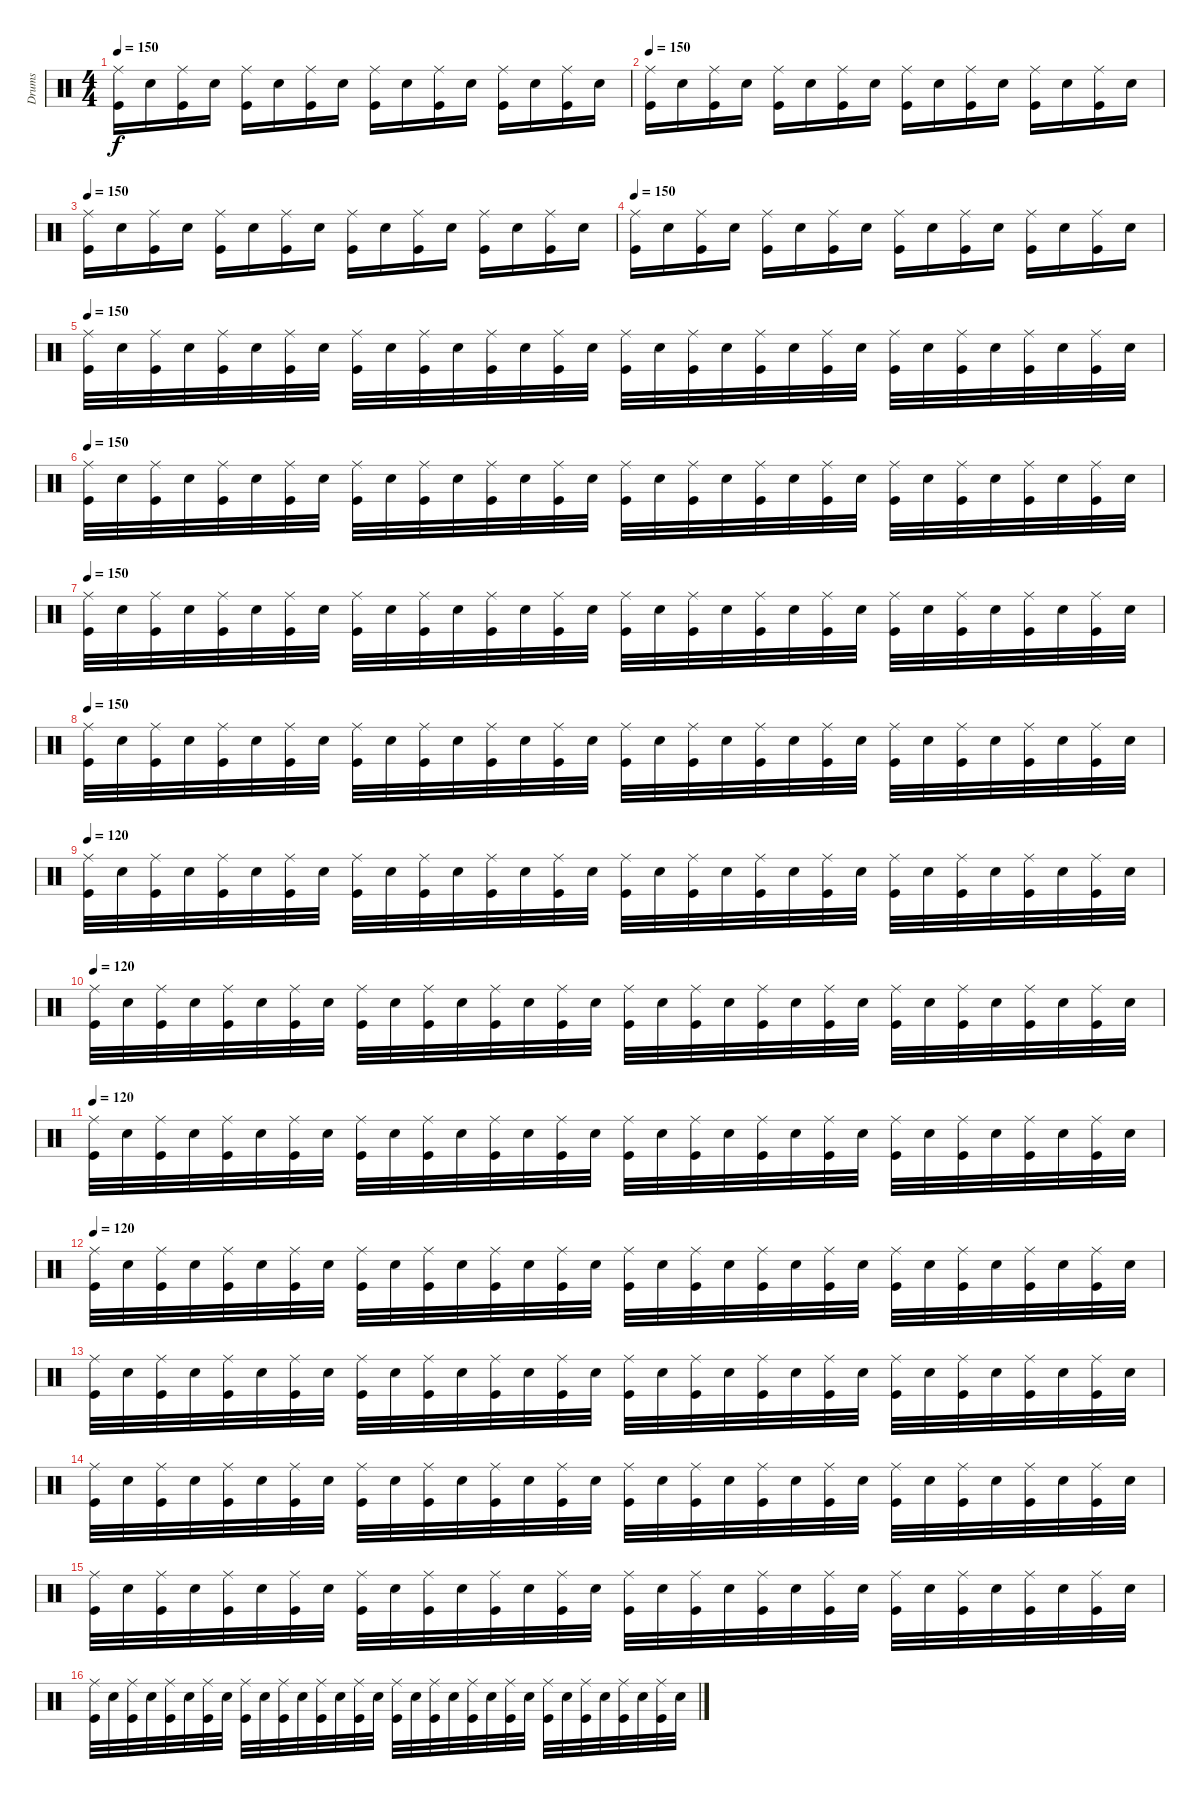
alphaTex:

\track ("Drums" "Drums") {instrument percussion}
\staff {score}
\articulation defaults
\ts (4 4)
\tempo 150
\clef neutral
\ks c
("Ride (middle)" "Kick (hit)").16{dy f} "Electric Snare (hit)".16 ("Ride (middle)" "Kick (hit)").16 "Electric Snare (hit)".16 ("Ride (middle)" "Kick (hit)").16 "Electric Snare (hit)".16 ("Ride (middle)" "Kick (hit)").16 "Electric Snare (hit)".16 ("Ride (middle)" "Kick (hit)").16 "Electric Snare (hit)".16 ("Ride (middle)" "Kick (hit)").16 "Electric Snare (hit)".16 ("Ride (middle)" "Kick (hit)").16 "Electric Snare (hit)".16 ("Ride (middle)" "Kick (hit)").16 "Electric Snare (hit)".16 |
\tempo 150
("Ride (middle)" "Kick (hit)").16 "Electric Snare (hit)".16 ("Ride (middle)" "Kick (hit)").16 "Electric Snare (hit)".16 ("Ride (middle)" "Kick (hit)").16 "Electric Snare (hit)".16 ("Ride (middle)" "Kick (hit)").16 "Electric Snare (hit)".16 ("Ride (middle)" "Kick (hit)").16 "Electric Snare (hit)".16 ("Ride (middle)" "Kick (hit)").16 "Electric Snare (hit)".16 ("Ride (middle)" "Kick (hit)").16 "Electric Snare (hit)".16 ("Ride (middle)" "Kick (hit)").16 "Electric Snare (hit)".16 |
\tempo 150
("Ride (middle)" "Kick (hit)").16 "Electric Snare (hit)".16 ("Ride (middle)" "Kick (hit)").16 "Electric Snare (hit)".16 ("Ride (middle)" "Kick (hit)").16 "Electric Snare (hit)".16 ("Ride (middle)" "Kick (hit)").16 "Electric Snare (hit)".16 ("Ride (middle)" "Kick (hit)").16 "Electric Snare (hit)".16 ("Ride (middle)" "Kick (hit)").16 "Electric Snare (hit)".16 ("Ride (middle)" "Kick (hit)").16 "Electric Snare (hit)".16 ("Ride (middle)" "Kick (hit)").16 "Electric Snare (hit)".16 |
\tempo 150
("Ride (middle)" "Kick (hit)").16 "Electric Snare (hit)".16 ("Ride (middle)" "Kick (hit)").16 "Electric Snare (hit)".16 ("Ride (middle)" "Kick (hit)").16 "Electric Snare (hit)".16 ("Ride (middle)" "Kick (hit)").16 "Electric Snare (hit)".16 ("Ride (middle)" "Kick (hit)").16 "Electric Snare (hit)".16 ("Ride (middle)" "Kick (hit)").16 "Electric Snare (hit)".16 ("Ride (middle)" "Kick (hit)").16 "Electric Snare (hit)".16 ("Ride (middle)" "Kick (hit)").16 "Electric Snare (hit)".16 |
\tempo 150
("Ride (middle)" "Kick (hit)").32 "Electric Snare (hit)".32 ("Ride (middle)" "Kick (hit)").32 "Electric Snare (hit)".32 ("Ride (middle)" "Kick (hit)").32 "Electric Snare (hit)".32 ("Ride (middle)" "Kick (hit)").32 "Electric Snare (hit)".32 ("Ride (middle)" "Kick (hit)").32 "Electric Snare (hit)".32 ("Ride (middle)" "Kick (hit)").32 "Electric Snare (hit)".32 ("Ride (middle)" "Kick (hit)").32 "Electric Snare (hit)".32 ("Ride (middle)" "Kick (hit)").32 "Electric Snare (hit)".32 ("Ride (middle)" "Kick (hit)").32 "Electric Snare (hit)".32 ("Ride (middle)" "Kick (hit)").32 "Electric Snare (hit)".32 ("Ride (middle)" "Kick (hit)").32 "Electric Snare (hit)".32 ("Ride (middle)" "Kick (hit)").32 "Electric Snare (hit)".32 ("Ride (middle)" "Kick (hit)").32 "Electric Snare (hit)".32 ("Ride (middle)" "Kick (hit)").32 "Electric Snare (hit)".32 ("Ride (middle)" "Kick (hit)").32 "Electric Snare (hit)".32 ("Ride (middle)" "Kick (hit)").32 "Electric Snare (hit)".32 |
\tempo 150
("Ride (middle)" "Kick (hit)").32 "Electric Snare (hit)".32 ("Ride (middle)" "Kick (hit)").32 "Electric Snare (hit)".32 ("Ride (middle)" "Kick (hit)").32 "Electric Snare (hit)".32 ("Ride (middle)" "Kick (hit)").32 "Electric Snare (hit)".32 ("Ride (middle)" "Kick (hit)").32 "Electric Snare (hit)".32 ("Ride (middle)" "Kick (hit)").32 "Electric Snare (hit)".32 ("Ride (middle)" "Kick (hit)").32 "Electric Snare (hit)".32 ("Ride (middle)" "Kick (hit)").32 "Electric Snare (hit)".32 ("Ride (middle)" "Kick (hit)").32 "Electric Snare (hit)".32 ("Ride (middle)" "Kick (hit)").32 "Electric Snare (hit)".32 ("Ride (middle)" "Kick (hit)").32 "Electric Snare (hit)".32 ("Ride (middle)" "Kick (hit)").32 "Electric Snare (hit)".32 ("Ride (middle)" "Kick (hit)").32 "Electric Snare (hit)".32 ("Ride (middle)" "Kick (hit)").32 "Electric Snare (hit)".32 ("Ride (middle)" "Kick (hit)").32 "Electric Snare (hit)".32 ("Ride (middle)" "Kick (hit)").32 "Electric Snare (hit)".32 |
\tempo 150
("Ride (middle)" "Kick (hit)").32 "Electric Snare (hit)".32 ("Ride (middle)" "Kick (hit)").32 "Electric Snare (hit)".32 ("Ride (middle)" "Kick (hit)").32 "Electric Snare (hit)".32 ("Ride (middle)" "Kick (hit)").32 "Electric Snare (hit)".32 ("Ride (middle)" "Kick (hit)").32 "Electric Snare (hit)".32 ("Ride (middle)" "Kick (hit)").32 "Electric Snare (hit)".32 ("Ride (middle)" "Kick (hit)").32 "Electric Snare (hit)".32 ("Ride (middle)" "Kick (hit)").32 "Electric Snare (hit)".32 ("Ride (middle)" "Kick (hit)").32 "Electric Snare (hit)".32 ("Ride (middle)" "Kick (hit)").32 "Electric Snare (hit)".32 ("Ride (middle)" "Kick (hit)").32 "Electric Snare (hit)".32 ("Ride (middle)" "Kick (hit)").32 "Electric Snare (hit)".32 ("Ride (middle)" "Kick (hit)").32 "Electric Snare (hit)".32 ("Ride (middle)" "Kick (hit)").32 "Electric Snare (hit)".32 ("Ride (middle)" "Kick (hit)").32 "Electric Snare (hit)".32 ("Ride (middle)" "Kick (hit)").32 "Electric Snare (hit)".32 |
\tempo 150
("Ride (middle)" "Kick (hit)").32 "Electric Snare (hit)".32 ("Ride (middle)" "Kick (hit)").32 "Electric Snare (hit)".32 ("Ride (middle)" "Kick (hit)").32 "Electric Snare (hit)".32 ("Ride (middle)" "Kick (hit)").32 "Electric Snare (hit)".32 ("Ride (middle)" "Kick (hit)").32 "Electric Snare (hit)".32 ("Ride (middle)" "Kick (hit)").32 "Electric Snare (hit)".32 ("Ride (middle)" "Kick (hit)").32 "Electric Snare (hit)".32 ("Ride (middle)" "Kick (hit)").32 "Electric Snare (hit)".32 ("Ride (middle)" "Kick (hit)").32 "Electric Snare (hit)".32 ("Ride (middle)" "Kick (hit)").32 "Electric Snare (hit)".32 ("Ride (middle)" "Kick (hit)").32 "Electric Snare (hit)".32 ("Ride (middle)" "Kick (hit)").32 "Electric Snare (hit)".32 ("Ride (middle)" "Kick (hit)").32 "Electric Snare (hit)".32 ("Ride (middle)" "Kick (hit)").32 "Electric Snare (hit)".32 ("Ride (middle)" "Kick (hit)").32 "Electric Snare (hit)".32 ("Ride (middle)" "Kick (hit)").32 "Electric Snare (hit)".32 |
\tempo 150
\tempo 120
("Ride (middle)" "Kick (hit)").32 "Electric Snare (hit)".32 ("Ride (middle)" "Kick (hit)").32 "Electric Snare (hit)".32 ("Ride (middle)" "Kick (hit)").32 "Electric Snare (hit)".32 ("Ride (middle)" "Kick (hit)").32 "Electric Snare (hit)".32 ("Ride (middle)" "Kick (hit)").32 "Electric Snare (hit)".32 ("Ride (middle)" "Kick (hit)").32 "Electric Snare (hit)".32 ("Ride (middle)" "Kick (hit)").32 "Electric Snare (hit)".32 ("Ride (middle)" "Kick (hit)").32 "Electric Snare (hit)".32 ("Ride (middle)" "Kick (hit)").32 "Electric Snare (hit)".32 ("Ride (middle)" "Kick (hit)").32 "Electric Snare (hit)".32 ("Ride (middle)" "Kick (hit)").32 "Electric Snare (hit)".32 ("Ride (middle)" "Kick (hit)").32 "Electric Snare (hit)".32 ("Ride (middle)" "Kick (hit)").32 "Electric Snare (hit)".32 ("Ride (middle)" "Kick (hit)").32 "Electric Snare (hit)".32 ("Ride (middle)" "Kick (hit)").32 "Electric Snare (hit)".32 ("Ride (middle)" "Kick (hit)").32 "Electric Snare (hit)".32 |
\tempo 120
("Ride (middle)" "Kick (hit)").32 "Electric Snare (hit)".32 ("Ride (middle)" "Kick (hit)").32 "Electric Snare (hit)".32 ("Ride (middle)" "Kick (hit)").32 "Electric Snare (hit)".32 ("Ride (middle)" "Kick (hit)").32 "Electric Snare (hit)".32 ("Ride (middle)" "Kick (hit)").32 "Electric Snare (hit)".32 ("Ride (middle)" "Kick (hit)").32 "Electric Snare (hit)".32 ("Ride (middle)" "Kick (hit)").32 "Electric Snare (hit)".32 ("Ride (middle)" "Kick (hit)").32 "Electric Snare (hit)".32 ("Ride (middle)" "Kick (hit)").32 "Electric Snare (hit)".32 ("Ride (middle)" "Kick (hit)").32 "Electric Snare (hit)".32 ("Ride (middle)" "Kick (hit)").32 "Electric Snare (hit)".32 ("Ride (middle)" "Kick (hit)").32 "Electric Snare (hit)".32 ("Ride (middle)" "Kick (hit)").32 "Electric Snare (hit)".32 ("Ride (middle)" "Kick (hit)").32 "Electric Snare (hit)".32 ("Ride (middle)" "Kick (hit)").32 "Electric Snare (hit)".32 ("Ride (middle)" "Kick (hit)").32 "Electric Snare (hit)".32 |
\tempo 120
("Ride (middle)" "Kick (hit)").32 "Electric Snare (hit)".32 ("Ride (middle)" "Kick (hit)").32 "Electric Snare (hit)".32 ("Ride (middle)" "Kick (hit)").32 "Electric Snare (hit)".32 ("Ride (middle)" "Kick (hit)").32 "Electric Snare (hit)".32 ("Ride (middle)" "Kick (hit)").32 "Electric Snare (hit)".32 ("Ride (middle)" "Kick (hit)").32 "Electric Snare (hit)".32 ("Ride (middle)" "Kick (hit)").32 "Electric Snare (hit)".32 ("Ride (middle)" "Kick (hit)").32 "Electric Snare (hit)".32 ("Ride (middle)" "Kick (hit)").32 "Electric Snare (hit)".32 ("Ride (middle)" "Kick (hit)").32 "Electric Snare (hit)".32 ("Ride (middle)" "Kick (hit)").32 "Electric Snare (hit)".32 ("Ride (middle)" "Kick (hit)").32 "Electric Snare (hit)".32 ("Ride (middle)" "Kick (hit)").32 "Electric Snare (hit)".32 ("Ride (middle)" "Kick (hit)").32 "Electric Snare (hit)".32 ("Ride (middle)" "Kick (hit)").32 "Electric Snare (hit)".32 ("Ride (middle)" "Kick (hit)").32 "Electric Snare (hit)".32 |
\tempo 120
("Ride (middle)" "Kick (hit)").32 "Electric Snare (hit)".32 ("Ride (middle)" "Kick (hit)").32 "Electric Snare (hit)".32 ("Ride (middle)" "Kick (hit)").32 "Electric Snare (hit)".32 ("Ride (middle)" "Kick (hit)").32 "Electric Snare (hit)".32 ("Ride (middle)" "Kick (hit)").32 "Electric Snare (hit)".32 ("Ride (middle)" "Kick (hit)").32 "Electric Snare (hit)".32 ("Ride (middle)" "Kick (hit)").32 "Electric Snare (hit)".32 ("Ride (middle)" "Kick (hit)").32 "Electric Snare (hit)".32 ("Ride (middle)" "Kick (hit)").32 "Electric Snare (hit)".32 ("Ride (middle)" "Kick (hit)").32 "Electric Snare (hit)".32 ("Ride (middle)" "Kick (hit)").32 "Electric Snare (hit)".32 ("Ride (middle)" "Kick (hit)").32 "Electric Snare (hit)".32 ("Ride (middle)" "Kick (hit)").32 "Electric Snare (hit)".32 ("Ride (middle)" "Kick (hit)").32 "Electric Snare (hit)".32 ("Ride (middle)" "Kick (hit)").32 "Electric Snare (hit)".32 ("Ride (middle)" "Kick (hit)").32 "Electric Snare (hit)".32 |
("Ride (middle)" "Kick (hit)").32 "Electric Snare (hit)".32 ("Ride (middle)" "Kick (hit)").32 "Electric Snare (hit)".32 ("Ride (middle)" "Kick (hit)").32 "Electric Snare (hit)".32 ("Ride (middle)" "Kick (hit)").32 "Electric Snare (hit)".32 ("Ride (middle)" "Kick (hit)").32 "Electric Snare (hit)".32 ("Ride (middle)" "Kick (hit)").32 "Electric Snare (hit)".32 ("Ride (middle)" "Kick (hit)").32 "Electric Snare (hit)".32 ("Ride (middle)" "Kick (hit)").32 "Electric Snare (hit)".32 ("Ride (middle)" "Kick (hit)").32 "Electric Snare (hit)".32 ("Ride (middle)" "Kick (hit)").32 "Electric Snare (hit)".32 ("Ride (middle)" "Kick (hit)").32 "Electric Snare (hit)".32 ("Ride (middle)" "Kick (hit)").32 "Electric Snare (hit)".32 ("Ride (middle)" "Kick (hit)").32 "Electric Snare (hit)".32 ("Ride (middle)" "Kick (hit)").32 "Electric Snare (hit)".32 ("Ride (middle)" "Kick (hit)").32 "Electric Snare (hit)".32 ("Ride (middle)" "Kick (hit)").32 "Electric Snare (hit)".32 |
("Ride (middle)" "Kick (hit)").32 "Electric Snare (hit)".32 ("Ride (middle)" "Kick (hit)").32 "Electric Snare (hit)".32 ("Ride (middle)" "Kick (hit)").32 "Electric Snare (hit)".32 ("Ride (middle)" "Kick (hit)").32 "Electric Snare (hit)".32 ("Ride (middle)" "Kick (hit)").32 "Electric Snare (hit)".32 ("Ride (middle)" "Kick (hit)").32 "Electric Snare (hit)".32 ("Ride (middle)" "Kick (hit)").32 "Electric Snare (hit)".32 ("Ride (middle)" "Kick (hit)").32 "Electric Snare (hit)".32 ("Ride (middle)" "Kick (hit)").32 "Electric Snare (hit)".32 ("Ride (middle)" "Kick (hit)").32 "Electric Snare (hit)".32 ("Ride (middle)" "Kick (hit)").32 "Electric Snare (hit)".32 ("Ride (middle)" "Kick (hit)").32 "Electric Snare (hit)".32 ("Ride (middle)" "Kick (hit)").32 "Electric Snare (hit)".32 ("Ride (middle)" "Kick (hit)").32 "Electric Snare (hit)".32 ("Ride (middle)" "Kick (hit)").32 "Electric Snare (hit)".32 ("Ride (middle)" "Kick (hit)").32 "Electric Snare (hit)".32 |
("Ride (middle)" "Kick (hit)").32 "Electric Snare (hit)".32 ("Ride (middle)" "Kick (hit)").32 "Electric Snare (hit)".32 ("Ride (middle)" "Kick (hit)").32 "Electric Snare (hit)".32 ("Ride (middle)" "Kick (hit)").32 "Electric Snare (hit)".32 ("Ride (middle)" "Kick (hit)").32 "Electric Snare (hit)".32 ("Ride (middle)" "Kick (hit)").32 "Electric Snare (hit)".32 ("Ride (middle)" "Kick (hit)").32 "Electric Snare (hit)".32 ("Ride (middle)" "Kick (hit)").32 "Electric Snare (hit)".32 ("Ride (middle)" "Kick (hit)").32 "Electric Snare (hit)".32 ("Ride (middle)" "Kick (hit)").32 "Electric Snare (hit)".32 ("Ride (middle)" "Kick (hit)").32 "Electric Snare (hit)".32 ("Ride (middle)" "Kick (hit)").32 "Electric Snare (hit)".32 ("Ride (middle)" "Kick (hit)").32 "Electric Snare (hit)".32 ("Ride (middle)" "Kick (hit)").32 "Electric Snare (hit)".32 ("Ride (middle)" "Kick (hit)").32 "Electric Snare (hit)".32 ("Ride (middle)" "Kick (hit)").32 "Electric Snare (hit)".32 |
("Ride (middle)" "Kick (hit)").32 "Electric Snare (hit)".32 ("Ride (middle)" "Kick (hit)").32 "Electric Snare (hit)".32 ("Ride (middle)" "Kick (hit)").32 "Electric Snare (hit)".32 ("Ride (middle)" "Kick (hit)").32 "Electric Snare (hit)".32 ("Ride (middle)" "Kick (hit)").32 "Electric Snare (hit)".32 ("Ride (middle)" "Kick (hit)").32 "Electric Snare (hit)".32 ("Ride (middle)" "Kick (hit)").32 "Electric Snare (hit)".32 ("Ride (middle)" "Kick (hit)").32 "Electric Snare (hit)".32 ("Ride (middle)" "Kick (hit)").32 "Electric Snare (hit)".32 ("Ride (middle)" "Kick (hit)").32 "Electric Snare (hit)".32 ("Ride (middle)" "Kick (hit)").32 "Electric Snare (hit)".32 ("Ride (middle)" "Kick (hit)").32 "Electric Snare (hit)".32 ("Ride (middle)" "Kick (hit)").32 "Electric Snare (hit)".32 ("Ride (middle)" "Kick (hit)").32 "Electric Snare (hit)".32 ("Ride (middle)" "Kick (hit)").32 "Electric Snare (hit)".32 ("Ride (middle)" "Kick (hit)").32 "Electric Snare (hit)".32
